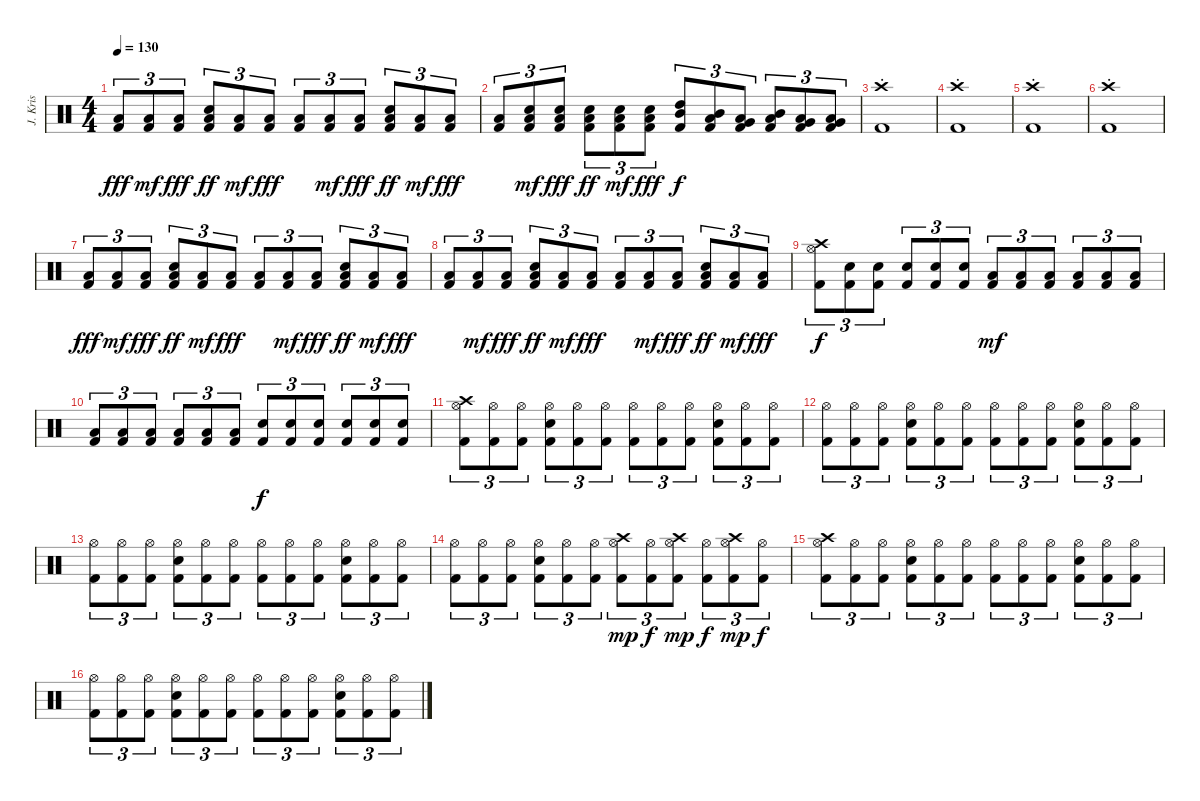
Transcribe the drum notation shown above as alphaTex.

\track ("   J. Kristensson (drums)" "   J. Kris") {instrument percussion}
\staff {score}
\articulation defaults
\ts (4 4)
\tempo 130
\clef neutral
\ks c
("Low Floor Tom (hit)" "Kick (hit) 2").8{tu (3 2) dy fff} ("Low Floor Tom (hit)" "Kick (hit) 2").8{tu (3 2) dy mf} ("Low Floor Tom (hit)" "Kick (hit) 2").8{tu (3 2) dy fff} ("Low Floor Tom (hit)" "Electric Snare (hit)" "Kick (hit) 2").8{tu (3 2) dy ff} ("Low Floor Tom (hit)" "Kick (hit) 2").8{tu (3 2) dy mf} ("Low Floor Tom (hit)" "Kick (hit) 2").8{tu (3 2) dy fff} ("Low Floor Tom (hit)" "Kick (hit) 2").8{tu (3 2)} ("Low Floor Tom (hit)" "Kick (hit) 2").8{tu (3 2) dy mf} ("Low Floor Tom (hit)" "Kick (hit) 2").8{tu (3 2) dy fff} ("Low Floor Tom (hit)" "Electric Snare (hit)" "Kick (hit) 2").8{tu (3 2) dy ff} ("Low Floor Tom (hit)" "Kick (hit) 2").8{tu (3 2) dy mf} ("Low Floor Tom (hit)" "Kick (hit) 2").8{tu (3 2) dy fff} |
("Low Floor Tom (hit)" "Kick (hit) 2").8{tu (3 2)} ("Low Floor Tom (hit)" "Electric Snare (hit)" "Kick (hit) 2").8{tu (3 2) dy mf} ("Low Floor Tom (hit)" "Electric Snare (hit)" "Kick (hit) 2").8{tu (3 2) dy fff} ("Low Floor Tom (hit)" "Electric Snare (hit)" "Kick (hit) 2").8{tu (3 2) dy ff} ("Low Floor Tom (hit)" "Electric Snare (hit)" "Kick (hit) 2").8{tu (3 2) dy mf} ("Low Floor Tom (hit)" "Electric Snare (hit)" "Kick (hit) 2").8{tu (3 2) dy fff} ("High Tom (hit)" "Mid Tom (hit)" "Kick (hit) 2").8{tu (3 2) dy f} ("Mid Tom (hit)" "Low Tom (hit)" "Kick (hit) 2").8{tu (3 2)} ("Low Tom (hit)" "Very Low Tom (hit)" "Kick (hit) 2").8{tu (3 2)} ("Mid Tom (hit)" "Low Tom (hit)" "Kick (hit) 2").8{tu (3 2)} ("Low Tom (hit)" "Very Low Tom (hit)" "Kick (hit) 2").8{tu (3 2)} ("Very Low Tom (hit)" "Low Floor Tom (hit)" "Kick (hit) 2").8{tu (3 2)} |
("Crash high (hit)"{st} "Kick (hit) 2").1 |
("Crash high (hit)"{st} "Kick (hit) 2").1 |
("Crash high (hit)"{st} "Kick (hit) 2").1 |
("Crash high (hit)"{st} "Kick (hit) 2").1 |
("Low Floor Tom (hit)" "Kick (hit) 2").8{tu (3 2) dy fff} ("Low Floor Tom (hit)" "Kick (hit) 2").8{tu (3 2) dy mf} ("Low Floor Tom (hit)" "Kick (hit) 2").8{tu (3 2) dy fff} ("Low Floor Tom (hit)" "Electric Snare (hit)" "Kick (hit) 2").8{tu (3 2) dy ff} ("Low Floor Tom (hit)" "Kick (hit) 2").8{tu (3 2) dy mf} ("Low Floor Tom (hit)" "Kick (hit) 2").8{tu (3 2) dy fff} ("Low Floor Tom (hit)" "Kick (hit) 2").8{tu (3 2)} ("Low Floor Tom (hit)" "Kick (hit) 2").8{tu (3 2) dy mf} ("Low Floor Tom (hit)" "Kick (hit) 2").8{tu (3 2) dy fff} ("Low Floor Tom (hit)" "Electric Snare (hit)" "Kick (hit) 2").8{tu (3 2) dy ff} ("Low Floor Tom (hit)" "Kick (hit) 2").8{tu (3 2) dy mf} ("Low Floor Tom (hit)" "Kick (hit) 2").8{tu (3 2) dy fff} |
("Low Floor Tom (hit)" "Kick (hit) 2").8{tu (3 2)} ("Low Floor Tom (hit)" "Kick (hit) 2").8{tu (3 2) dy mf} ("Low Floor Tom (hit)" "Kick (hit) 2").8{tu (3 2) dy fff} ("Low Floor Tom (hit)" "Electric Snare (hit)" "Kick (hit) 2").8{tu (3 2) dy ff} ("Low Floor Tom (hit)" "Kick (hit) 2").8{tu (3 2) dy mf} ("Low Floor Tom (hit)" "Kick (hit) 2").8{tu (3 2) dy fff} ("Low Floor Tom (hit)" "Kick (hit) 2").8{tu (3 2)} ("Low Floor Tom (hit)" "Kick (hit) 2").8{tu (3 2) dy mf} ("Low Floor Tom (hit)" "Kick (hit) 2").8{tu (3 2) dy fff} ("Low Floor Tom (hit)" "Electric Snare (hit)" "Kick (hit) 2").8{tu (3 2) dy ff} ("Low Floor Tom (hit)" "Kick (hit) 2").8{tu (3 2) dy mf} ("Low Floor Tom (hit)" "Kick (hit) 2").8{tu (3 2) dy fff} |
("Hi-Hat (open)" "Crash high (hit)" "Kick (hit) 2").8{tu (3 2) dy f} ("Electric Snare (hit)" "Kick (hit) 2").8{tu (3 2)} ("Electric Snare (hit)" "Kick (hit) 2").8{tu (3 2)} ("Electric Snare (hit)" "Kick (hit) 2").8{tu (3 2)} ("Electric Snare (hit)" "Kick (hit) 2").8{tu (3 2)} ("Electric Snare (hit)" "Kick (hit) 2").8{tu (3 2)} ("Low Floor Tom (hit)" "Kick (hit) 2").8{tu (3 2) dy mf} ("Low Floor Tom (hit)" "Kick (hit) 2").8{tu (3 2)} ("Low Floor Tom (hit)" "Kick (hit) 2").8{tu (3 2)} ("Low Floor Tom (hit)" "Kick (hit) 2").8{tu (3 2)} ("Low Floor Tom (hit)" "Kick (hit) 2").8{tu (3 2)} ("Low Floor Tom (hit)" "Kick (hit) 2").8{tu (3 2)} |
("Low Tom (hit)" "Kick (hit) 2").8{tu (3 2)} ("Low Tom (hit)" "Kick (hit) 2").8{tu (3 2)} ("Low Tom (hit)" "Kick (hit) 2").8{tu (3 2)} ("Low Tom (hit)" "Kick (hit) 2").8{tu (3 2)} ("Low Tom (hit)" "Kick (hit) 2").8{tu (3 2)} ("Low Tom (hit)" "Kick (hit) 2").8{tu (3 2)} ("Electric Snare (hit)" "Kick (hit) 2").8{tu (3 2) dy f} ("Electric Snare (hit)" "Kick (hit) 2").8{tu (3 2)} ("Electric Snare (hit)" "Kick (hit) 2").8{tu (3 2)} ("Electric Snare (hit)" "Kick (hit) 2").8{tu (3 2)} ("Electric Snare (hit)" "Kick (hit) 2").8{tu (3 2)} ("Electric Snare (hit)" "Kick (hit) 2").8{tu (3 2)} |
("Hi-Hat (open)" "Crash high (hit)" "Kick (hit) 2").8{tu (3 2)} ("Hi-Hat (open)" "Kick (hit) 2").8{tu (3 2)} ("Hi-Hat (open)" "Kick (hit) 2").8{tu (3 2)} ("Hi-Hat (open)" "Electric Snare (hit)" "Kick (hit) 2").8{tu (3 2)} ("Hi-Hat (open)" "Kick (hit) 2").8{tu (3 2)} ("Hi-Hat (open)" "Kick (hit) 2").8{tu (3 2)} ("Hi-Hat (open)" "Kick (hit) 2").8{tu (3 2)} ("Hi-Hat (open)" "Kick (hit) 2").8{tu (3 2)} ("Hi-Hat (open)" "Kick (hit) 2").8{tu (3 2)} ("Hi-Hat (open)" "Electric Snare (hit)" "Kick (hit) 2").8{tu (3 2)} ("Hi-Hat (open)" "Kick (hit) 2").8{tu (3 2)} ("Hi-Hat (open)" "Kick (hit) 2").8{tu (3 2)} |
("Hi-Hat (open)" "Kick (hit) 2").8{tu (3 2)} ("Hi-Hat (open)" "Kick (hit) 2").8{tu (3 2)} ("Hi-Hat (open)" "Kick (hit) 2").8{tu (3 2)} ("Hi-Hat (open)" "Electric Snare (hit)" "Kick (hit) 2").8{tu (3 2)} ("Hi-Hat (open)" "Kick (hit) 2").8{tu (3 2)} ("Hi-Hat (open)" "Kick (hit) 2").8{tu (3 2)} ("Hi-Hat (open)" "Kick (hit) 2").8{tu (3 2)} ("Hi-Hat (open)" "Kick (hit) 2").8{tu (3 2)} ("Hi-Hat (open)" "Kick (hit) 2").8{tu (3 2)} ("Hi-Hat (open)" "Electric Snare (hit)" "Kick (hit) 2").8{tu (3 2)} ("Hi-Hat (open)" "Kick (hit) 2").8{tu (3 2)} ("Hi-Hat (open)" "Kick (hit) 2").8{tu (3 2)} |
("Hi-Hat (open)" "Kick (hit) 2").8{tu (3 2)} ("Hi-Hat (open)" "Kick (hit) 2").8{tu (3 2)} ("Hi-Hat (open)" "Kick (hit) 2").8{tu (3 2)} ("Hi-Hat (open)" "Electric Snare (hit)" "Kick (hit) 2").8{tu (3 2)} ("Hi-Hat (open)" "Kick (hit) 2").8{tu (3 2)} ("Hi-Hat (open)" "Kick (hit) 2").8{tu (3 2)} ("Hi-Hat (open)" "Kick (hit) 2").8{tu (3 2)} ("Hi-Hat (open)" "Kick (hit) 2").8{tu (3 2)} ("Hi-Hat (open)" "Kick (hit) 2").8{tu (3 2)} ("Hi-Hat (open)" "Electric Snare (hit)" "Kick (hit) 2").8{tu (3 2)} ("Hi-Hat (open)" "Kick (hit) 2").8{tu (3 2)} ("Hi-Hat (open)" "Kick (hit) 2").8{tu (3 2)} |
("Hi-Hat (open)" "Kick (hit) 2").8{tu (3 2)} ("Hi-Hat (open)" "Kick (hit) 2").8{tu (3 2)} ("Hi-Hat (open)" "Kick (hit) 2").8{tu (3 2)} ("Hi-Hat (open)" "Electric Snare (hit)" "Kick (hit) 2").8{tu (3 2)} ("Hi-Hat (open)" "Kick (hit) 2").8{tu (3 2)} ("Hi-Hat (open)" "Kick (hit) 2").8{tu (3 2)} ("Hi-Hat (open)" "Crash high (hit)" "Kick (hit) 2").8{tu (3 2) dy mp} ("Hi-Hat (open)" "Kick (hit) 2").8{tu (3 2) dy f} ("Hi-Hat (open)" "Crash high (hit)" "Kick (hit) 2").8{tu (3 2) dy mp} ("Hi-Hat (open)" "Kick (hit) 2").8{tu (3 2) dy f} ("Hi-Hat (open)" "Crash high (hit)" "Kick (hit) 2").8{tu (3 2) dy mp} ("Hi-Hat (open)" "Kick (hit) 2").8{tu (3 2) dy f} |
("Hi-Hat (open)" "Crash high (hit)" "Kick (hit) 2").8{tu (3 2)} ("Hi-Hat (open)" "Kick (hit) 2").8{tu (3 2)} ("Hi-Hat (open)" "Kick (hit) 2").8{tu (3 2)} ("Hi-Hat (open)" "Electric Snare (hit)" "Kick (hit) 2").8{tu (3 2)} ("Hi-Hat (open)" "Kick (hit) 2").8{tu (3 2)} ("Hi-Hat (open)" "Kick (hit) 2").8{tu (3 2)} ("Hi-Hat (open)" "Kick (hit) 2").8{tu (3 2)} ("Hi-Hat (open)" "Kick (hit) 2").8{tu (3 2)} ("Hi-Hat (open)" "Kick (hit) 2").8{tu (3 2)} ("Hi-Hat (open)" "Electric Snare (hit)" "Kick (hit) 2").8{tu (3 2)} ("Hi-Hat (open)" "Kick (hit) 2").8{tu (3 2)} ("Hi-Hat (open)" "Kick (hit) 2").8{tu (3 2)} |
("Hi-Hat (open)" "Kick (hit) 2").8{tu (3 2)} ("Hi-Hat (open)" "Kick (hit) 2").8{tu (3 2)} ("Hi-Hat (open)" "Kick (hit) 2").8{tu (3 2)} ("Hi-Hat (open)" "Electric Snare (hit)" "Kick (hit) 2").8{tu (3 2)} ("Hi-Hat (open)" "Kick (hit) 2").8{tu (3 2)} ("Hi-Hat (open)" "Kick (hit) 2").8{tu (3 2)} ("Hi-Hat (open)" "Kick (hit) 2").8{tu (3 2)} ("Hi-Hat (open)" "Kick (hit) 2").8{tu (3 2)} ("Hi-Hat (open)" "Kick (hit) 2").8{tu (3 2)} ("Hi-Hat (open)" "Electric Snare (hit)" "Kick (hit) 2").8{tu (3 2)} ("Hi-Hat (open)" "Kick (hit) 2").8{tu (3 2)} ("Hi-Hat (open)" "Kick (hit) 2").8{tu (3 2)}
